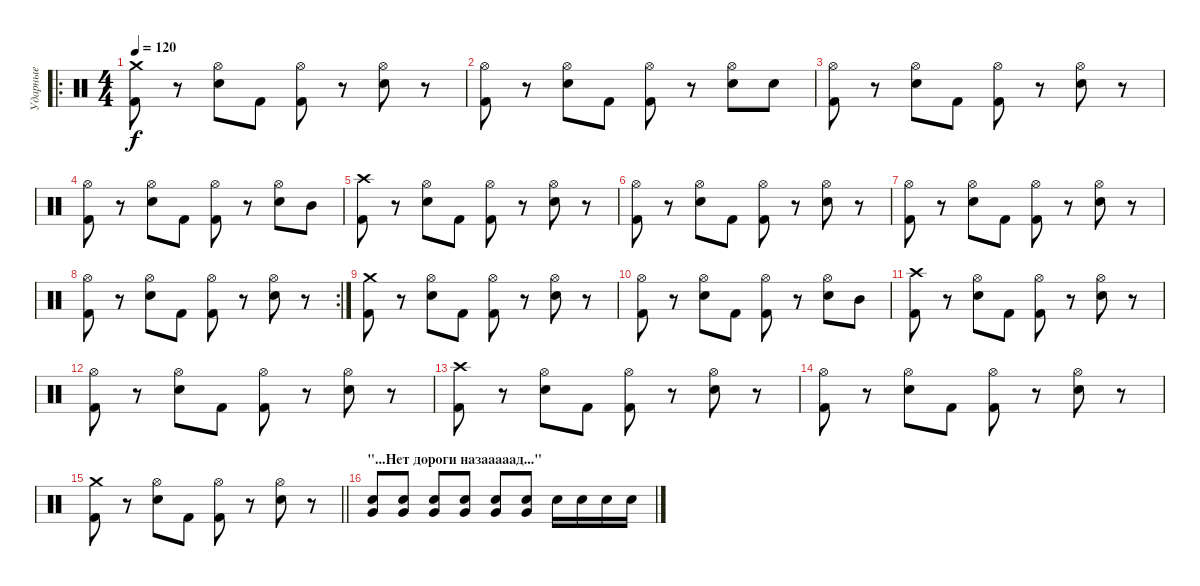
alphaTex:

\track ("Ударные" "Ударные") {instrument percussion}
\staff {score}
\articulation defaults
\ro
\ts (4 4)
\tempo 120
\clef neutral
\ks c
("Kick (hit) 2" "Crash medium (hit)").8{dy f} r.8 ("Electric Snare (hit)" "Hi-Hat (open)").8 "Kick (hit) 2".8 ("Kick (hit) 2" "Hi-Hat (open)").8 r.8 ("Electric Snare (hit)" "Hi-Hat (open)").8 r.8 |
("Kick (hit) 2" "Hi-Hat (open)").8 r.8 ("Electric Snare (hit)" "Hi-Hat (open)").8 "Kick (hit) 2".8 ("Kick (hit) 2" "Hi-Hat (open)").8 r.8 ("Electric Snare (hit)" "Hi-Hat (open)").8 "Electric Snare (hit)".8 |
("Kick (hit) 2" "Hi-Hat (open)").8 r.8 ("Electric Snare (hit)" "Hi-Hat (open)").8 "Kick (hit) 2".8 ("Kick (hit) 2" "Hi-Hat (open)").8 r.8 ("Electric Snare (hit)" "Hi-Hat (open)").8 r.8 |
("Kick (hit) 2" "Hi-Hat (open)").8 r.8 ("Electric Snare (hit)" "Hi-Hat (open)").8 "Kick (hit) 2".8 ("Kick (hit) 2" "Hi-Hat (open)").8 r.8 ("Electric Snare (hit)" "Hi-Hat (open)").8 "Mid Tom (hit)".8 |
("Kick (hit) 2" "Crash high (hit)").8 r.8 ("Electric Snare (hit)" "Hi-Hat (open)").8 "Kick (hit) 2".8 ("Kick (hit) 2" "Hi-Hat (open)").8 r.8 ("Electric Snare (hit)" "Hi-Hat (open)").8 r.8 |
("Kick (hit) 2" "Hi-Hat (open)").8 r.8 ("Electric Snare (hit)" "Hi-Hat (open)").8 "Kick (hit) 2".8 ("Kick (hit) 2" "Hi-Hat (open)").8 r.8 ("Electric Snare (hit)" "Hi-Hat (open)").8 r.8 |
("Kick (hit) 2" "Hi-Hat (open)").8 r.8 ("Electric Snare (hit)" "Hi-Hat (open)").8 "Kick (hit) 2".8 ("Kick (hit) 2" "Hi-Hat (open)").8 r.8 ("Electric Snare (hit)" "Hi-Hat (open)").8 r.8 |
\rc 2
("Kick (hit) 2" "Hi-Hat (open)").8 r.8 ("Electric Snare (hit)" "Hi-Hat (open)").8 "Kick (hit) 2".8 ("Kick (hit) 2" "Hi-Hat (open)").8 r.8 ("Electric Snare (hit)" "Hi-Hat (open)").8 r.8 |
("Kick (hit) 2" "Crash medium (hit)").8 r.8 ("Electric Snare (hit)" "Hi-Hat (open)").8 "Kick (hit) 2".8 ("Kick (hit) 2" "Hi-Hat (open)").8 r.8 ("Electric Snare (hit)" "Hi-Hat (open)").8 r.8 |
("Kick (hit) 2" "Hi-Hat (open)").8 r.8 ("Electric Snare (hit)" "Hi-Hat (open)").8 "Kick (hit) 2".8 ("Kick (hit) 2" "Hi-Hat (open)").8 r.8 ("Electric Snare (hit)" "Hi-Hat (open)").8 "Mid Tom (hit)".8 |
("Kick (hit) 2" "Crash high (hit)").8 r.8 ("Electric Snare (hit)" "Hi-Hat (open)").8 "Kick (hit) 2".8 ("Kick (hit) 2" "Hi-Hat (open)").8 r.8 ("Electric Snare (hit)" "Hi-Hat (open)").8 r.8 |
("Kick (hit) 2" "Hi-Hat (open)").8 r.8 ("Electric Snare (hit)" "Hi-Hat (open)").8 "Kick (hit) 2".8 ("Kick (hit) 2" "Hi-Hat (open)").8 r.8 ("Electric Snare (hit)" "Hi-Hat (open)").8 r.8 |
("Kick (hit) 2" "Crash high (hit)").8 r.8 ("Electric Snare (hit)" "Hi-Hat (open)").8 "Kick (hit) 2".8 ("Kick (hit) 2" "Hi-Hat (open)").8 r.8 ("Electric Snare (hit)" "Hi-Hat (open)").8 r.8 |
("Kick (hit) 2" "Hi-Hat (open)").8 r.8 ("Electric Snare (hit)" "Hi-Hat (open)").8 "Kick (hit) 2".8 ("Kick (hit) 2" "Hi-Hat (open)").8 r.8 ("Electric Snare (hit)" "Hi-Hat (open)").8 r.8 |
\barLineRight lightlight
("Kick (hit) 2" "Crash medium (hit)").8 r.8 ("Electric Snare (hit)" "Hi-Hat (open)").8 "Kick (hit) 2".8 ("Kick (hit) 2" "Hi-Hat (open)").8 r.8 ("Electric Snare (hit)" "Hi-Hat (open)").8 r.8 |
\section ("" "\"...Нет дороги назааааад...\"")
("Electric Snare (hit)" "Very Low Tom (hit)").8 ("Electric Snare (hit)" "Very Low Tom (hit)").8 ("Electric Snare (hit)" "Very Low Tom (hit)").8 ("Electric Snare (hit)" "Very Low Tom (hit)").8 ("Electric Snare (hit)" "Very Low Tom (hit)").8 ("Electric Snare (hit)" "Very Low Tom (hit)").8 "Electric Snare (hit)".16 "Electric Snare (hit)".16 "Electric Snare (hit)".16 "Electric Snare (hit)".16
